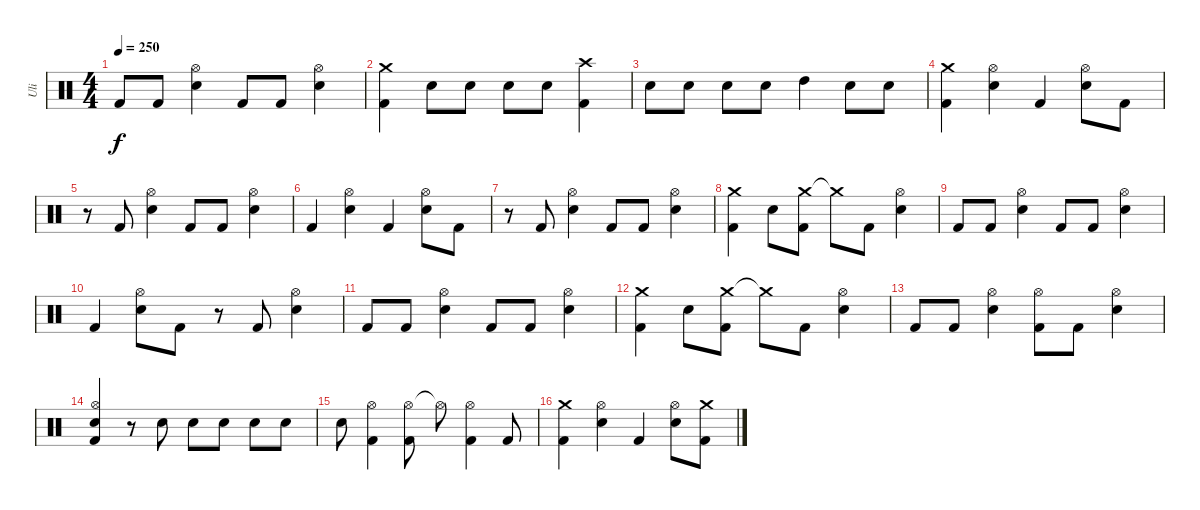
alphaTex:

\track ("Uli" "Uli") {instrument percussion}
\staff {score}
\articulation defaults
\ts (4 4)
\tempo 250
\clef neutral
\ks c "Kick (hit) 2".8{dy f} "Kick (hit) 2".8
("Hi-Hat (open)" "Snare (hit) 2").4 "Kick (hit) 2".8 "Kick (hit) 2".8 ("Hi-Hat (open)" "Snare (hit) 2").4 |
("Crash medium (hit)" "Kick (hit) 2").4 "Snare (hit) 2".8 "Snare (hit) 2".8 "Snare (hit) 2".8 "Snare (hit) 2".8 ("Crash high (hit)" "Kick (hit) 2").4 |
"Snare (hit) 2".8 "Snare (hit) 2".8 "Snare (hit) 2".8 "Snare (hit) 2".8 "High Tom (hit)".4 "Snare (hit) 2".8 "Snare (hit) 2".8 |
("Crash medium (hit)" "Kick (hit) 2").4 ("Hi-Hat (open)" "Snare (hit) 2").4 "Kick (hit) 2".4 ("Hi-Hat (open)" "Snare (hit) 2").8 "Kick (hit) 2".8 |
r.8 "Kick (hit) 2".8 ("Hi-Hat (open)" "Snare (hit) 2").4 "Kick (hit) 2".8 "Kick (hit) 2".8 ("Hi-Hat (open)" "Snare (hit) 2").4 |
"Kick (hit) 2".4 ("Hi-Hat (open)" "Snare (hit) 2").4 "Kick (hit) 2".4 ("Hi-Hat (open)" "Snare (hit) 2").8 "Kick (hit) 2".8 |
r.8 "Kick (hit) 2".8 ("Hi-Hat (open)" "Snare (hit) 2").4 "Kick (hit) 2".8 "Kick (hit) 2".8 ("Hi-Hat (open)" "Snare (hit) 2").4 |
("Crash medium (hit)" "Kick (hit) 2").4 "Snare (hit) 2".8 ("Crash medium (hit)" "Kick (hit) 2").8 "Crash medium (hit)"{t}.8 "Kick (hit) 2".8 ("Hi-Hat (open)" "Snare (hit) 2").4 |
"Kick (hit) 2".8 "Kick (hit) 2".8 ("Hi-Hat (open)" "Snare (hit) 2").4 "Kick (hit) 2".8 "Kick (hit) 2".8 ("Hi-Hat (open)" "Snare (hit) 2").4 |
"Kick (hit) 2".4 ("Hi-Hat (open)" "Snare (hit) 2").8 "Kick (hit) 2".8 r.8 "Kick (hit) 2".8 ("Hi-Hat (open)" "Snare (hit) 2").4 |
"Kick (hit) 2".8 "Kick (hit) 2".8 ("Hi-Hat (open)" "Snare (hit) 2").4 "Kick (hit) 2".8 "Kick (hit) 2".8 ("Hi-Hat (open)" "Snare (hit) 2").4 |
("Crash medium (hit)" "Kick (hit) 2").4 "Snare (hit) 2".8 ("Crash medium (hit)" "Kick (hit) 2").8 "Crash medium (hit)"{t}.8 "Kick (hit) 2".8 ("Hi-Hat (open)" "Snare (hit) 2").4 |
"Kick (hit) 2".8 "Kick (hit) 2".8 ("Hi-Hat (open)" "Snare (hit) 2").4 ("Hi-Hat (open)" "Kick (hit) 2").8 "Kick (hit) 2".8 ("Hi-Hat (open)" "Snare (hit) 2").4 |
("Hi-Hat (open)" "Snare (hit) 2" "Kick (hit) 2").4 r.8 "Snare (hit) 2".8 "Snare (hit) 2".8 "Snare (hit) 2".8 "Snare (hit) 2".8 "Snare (hit) 2".8 |
"Snare (hit) 2".8 ("Hi-Hat (open)" "Kick (hit) 2").4 ("Hi-Hat (open)" "Kick (hit) 2").8 "Hi-Hat (open)"{t}.8 ("Hi-Hat (open)" "Kick (hit) 2").4 "Kick (hit) 2".8 |
("Crash medium (hit)" "Kick (hit) 2").4 ("Hi-Hat (open)" "Snare (hit) 2").4 "Kick (hit) 2".4 ("Hi-Hat (open)" "Snare (hit) 2").8 ("Crash medium (hit)" "Kick (hit) 2").8
